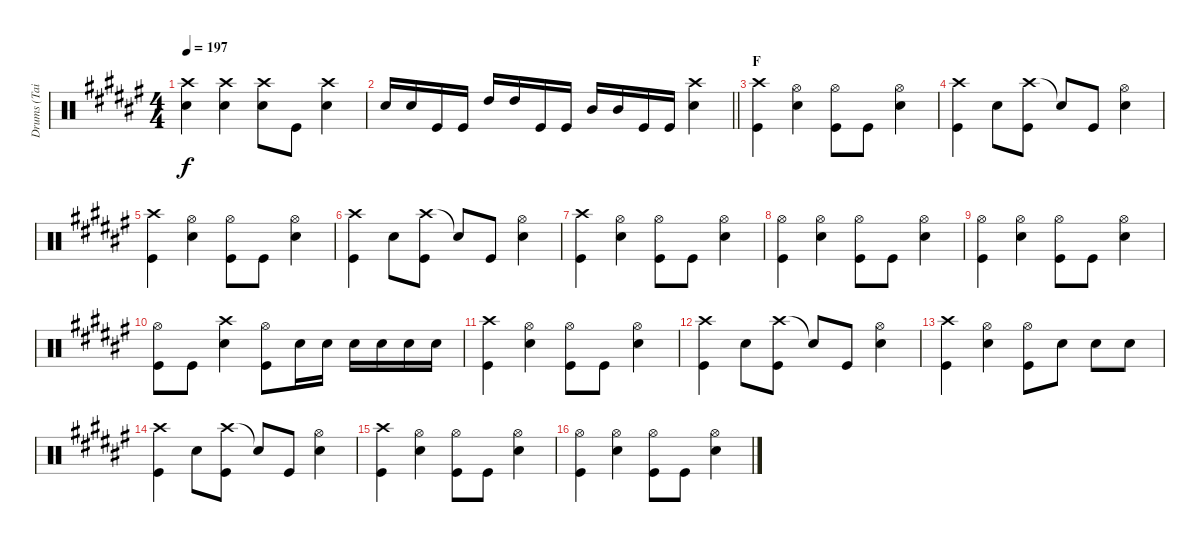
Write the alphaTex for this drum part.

\track ("Drums (Tainaka Ritsu)" "Drums (Tai") {instrument percussion}
\staff {score}
\articulation defaults
\ts (4 4)
\tempo 197
\clef neutral
\ks f#
("Crash high (hit)" "Snare (hit) 2").4{dy f} ("Crash high (hit)" "Snare (hit) 2").4 ("Crash high (hit)" "Snare (hit) 2").8 "Kick (hit)".8 ("Crash high (hit)" "Snare (hit) 2").4 |
\barLineRight lightlight "Snare (hit) 2".16 "Snare (hit) 2".16 "Kick (hit)".16 "Kick (hit)".16 "High Tom (hit)".16 "High Tom (hit)".16 "Kick (hit)".16 "Kick (hit)".16 "Mid Tom (hit)".16 "Mid Tom (hit)".16 "Kick (hit)".16 "Kick (hit)".16
("Crash high (hit)" "Snare (hit) 2").4 |
\section ("" "F")
("Crash high (hit)" "Kick (hit)").4 ("Hi-Hat (open)" "Snare (hit) 2").4 ("Hi-Hat (open)" "Kick (hit)").8 "Kick (hit)".8 ("Hi-Hat (open)" "Snare (hit) 2").4 |
("Crash high (hit)" "Kick (hit)").4 "Snare (hit) 2".8 ("Crash high (hit)" "Kick (hit)").8 "Snare (hit)"{t}.8 "Kick (hit)".8 ("Hi-Hat (open)" "Snare (hit) 2").4 |
("Crash high (hit)" "Kick (hit)").4 ("Hi-Hat (open)" "Snare (hit) 2").4 ("Hi-Hat (open)" "Kick (hit)").8 "Kick (hit)".8 ("Hi-Hat (open)" "Snare (hit) 2").4 |
("Crash high (hit)" "Kick (hit)").4 "Snare (hit) 2".8 ("Crash high (hit)" "Kick (hit)").8 "Snare (hit)"{t}.8 "Kick (hit)".8 ("Hi-Hat (open)" "Snare (hit) 2").4 |
("Crash high (hit)" "Kick (hit)").4 ("Hi-Hat (open)" "Snare (hit) 2").4 ("Hi-Hat (open)" "Kick (hit)").8 "Kick (hit)".8 ("Hi-Hat (open)" "Snare (hit) 2").4 |
("Hi-Hat (open)" "Kick (hit)").4 ("Hi-Hat (open)" "Snare (hit) 2").4 ("Hi-Hat (open)" "Kick (hit)").8 "Kick (hit)".8 ("Hi-Hat (open)" "Snare (hit) 2").4 |
("Hi-Hat (open)" "Kick (hit)").4 ("Hi-Hat (open)" "Snare (hit) 2").4 ("Hi-Hat (open)" "Kick (hit)").8 "Kick (hit)".8 ("Hi-Hat (open)" "Snare (hit) 2").4 |
("Hi-Hat (open)" "Kick (hit)").8 "Kick (hit)".8 ("Crash high (hit)" "Snare (hit) 2").4 ("Hi-Hat (open)" "Kick (hit)").8 "Snare (hit) 2".16 "Snare (hit) 2".16 "Snare (hit) 2".16 "Snare (hit) 2".16 "Snare (hit) 2".16 "Snare (hit) 2".16 |
("Crash high (hit)" "Kick (hit)").4 ("Hi-Hat (open)" "Snare (hit) 2").4 ("Hi-Hat (open)" "Kick (hit)").8 "Kick (hit)".8 ("Hi-Hat (open)" "Snare (hit) 2").4 |
("Crash high (hit)" "Kick (hit)").4 "Snare (hit) 2".8 ("Crash high (hit)" "Kick (hit)").8 "Snare (hit)"{t}.8 "Kick (hit)".8 ("Hi-Hat (open)" "Snare (hit) 2").4 |
("Crash high (hit)" "Kick (hit)").4 ("Hi-Hat (open)" "Snare (hit) 2").4 ("Hi-Hat (open)" "Kick (hit)").8 "Snare (hit) 2".8 "Snare (hit) 2".8 "Snare (hit) 2".8 |
("Crash high (hit)" "Kick (hit)").4 "Snare (hit) 2".8 ("Crash high (hit)" "Kick (hit)").8 "Snare (hit)"{t}.8 "Kick (hit)".8 ("Hi-Hat (open)" "Snare (hit) 2").4 |
("Crash high (hit)" "Kick (hit)").4 ("Hi-Hat (open)" "Snare (hit) 2").4 ("Hi-Hat (open)" "Kick (hit)").8 "Kick (hit)".8 ("Hi-Hat (open)" "Snare (hit) 2").4 |
("Hi-Hat (open)" "Kick (hit)").4 ("Hi-Hat (open)" "Snare (hit) 2").4 ("Hi-Hat (open)" "Kick (hit)").8 "Kick (hit)".8 ("Hi-Hat (open)" "Snare (hit) 2").4
